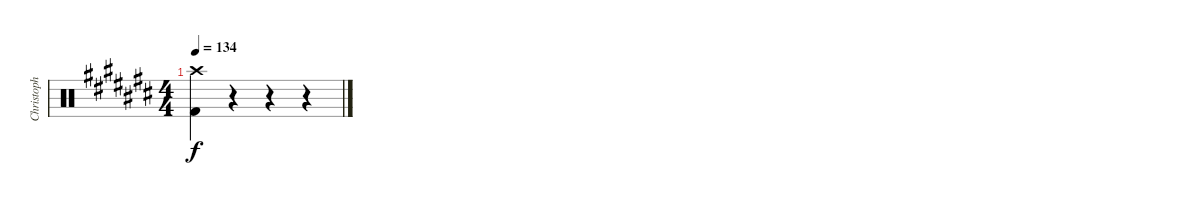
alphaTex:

\track ("Christoph Doom Schneider - Drums" "Christoph ") {instrument percussion}
\staff {score}
\articulation defaults
\ts (4 4)
\tempo 134
\clef neutral
\ks c#
("Kick (hit) 2" "Crash high (hit)").4{dy f} r.4 r.4 r.4
